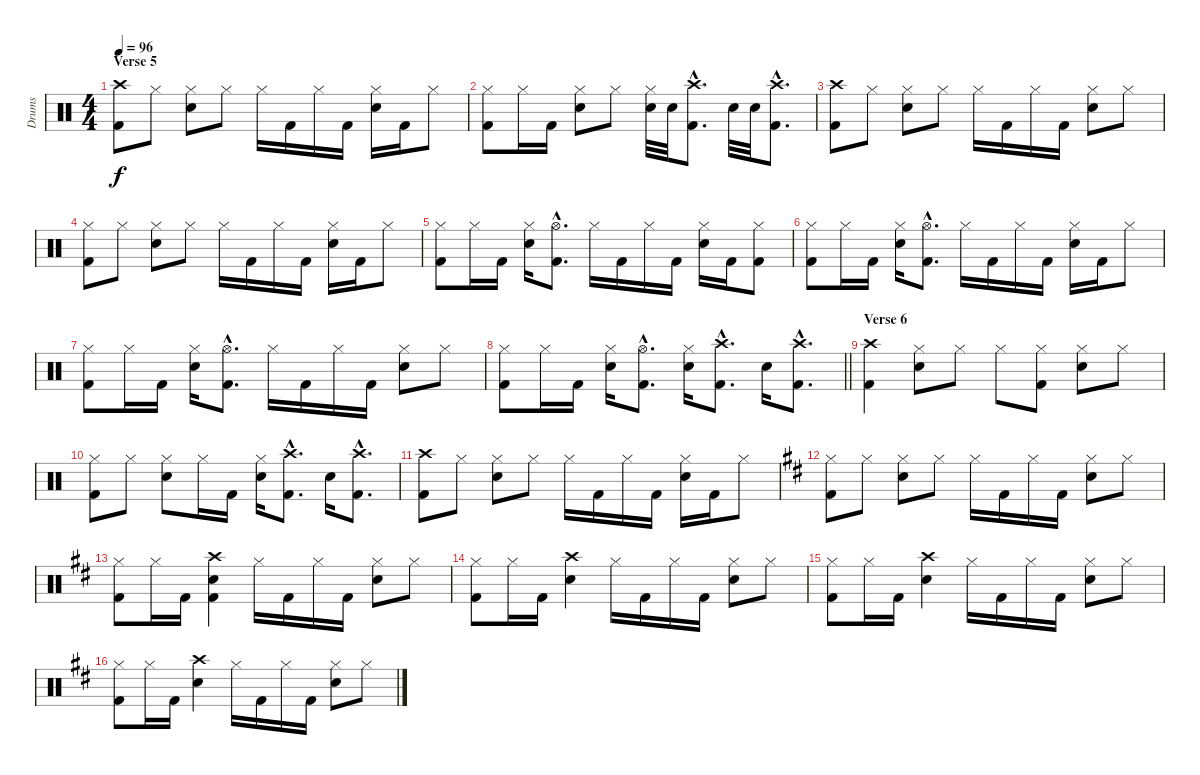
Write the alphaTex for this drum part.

\track ("Drums" "Drums") {instrument percussion}
\staff {score}
\articulation defaults
\ts (4 4)
\section ("" "Verse 5")
\tempo 96
\clef neutral
\ks c
("Crash high (hit)" "Kick (hit) 2").8{dy f} "Hi-Hat (closed)".8 ("Hi-Hat (closed)" "Electric Snare (hit)").8 "Hi-Hat (closed)".8 "Hi-Hat (closed)".16 "Kick (hit) 2".16 "Hi-Hat (closed)".16 "Kick (hit) 2".16 ("Hi-Hat (closed)" "Electric Snare (hit)").16 "Kick (hit) 2".16 "Hi-Hat (closed)".8 |
("Hi-Hat (closed)" "Kick (hit) 2").8 "Hi-Hat (closed)".16 "Kick (hit) 2".16 ("Hi-Hat (closed)" "Electric Snare (hit)").8 "Hi-Hat (closed)".8 ("Hi-Hat (closed)" "Electric Snare (hit)").32 "Electric Snare (hit)".32 ("Crash high (hit)"{hac} "Kick (hit) 2"{hac}).8{d} "Electric Snare (hit)".32 "Electric Snare (hit)".32 ("Crash high (hit)"{hac} "Kick (hit) 2"{hac}).8{d} |
("Crash high (hit)" "Kick (hit) 2").8 "Hi-Hat (closed)".8 ("Hi-Hat (closed)" "Electric Snare (hit)").8 "Hi-Hat (closed)".8 "Hi-Hat (closed)".16 "Kick (hit) 2".16 "Hi-Hat (closed)".16 "Kick (hit) 2".16 ("Hi-Hat (closed)" "Electric Snare (hit)").8 "Hi-Hat (closed)".8 |
("Hi-Hat (closed)" "Kick (hit) 2").8 "Hi-Hat (closed)".8 ("Hi-Hat (closed)" "Electric Snare (hit)").8 "Hi-Hat (closed)".8 "Hi-Hat (closed)".16 "Kick (hit) 2".16 "Hi-Hat (closed)".16 "Kick (hit) 2".16 ("Hi-Hat (closed)" "Electric Snare (hit)").16 "Kick (hit) 2".16 "Hi-Hat (closed)".8 |
("Hi-Hat (closed)" "Kick (hit) 2").8 "Hi-Hat (closed)".16 "Kick (hit) 2".16 ("Hi-Hat (closed)" "Electric Snare (hit)").16 ("Hi-Hat (open)"{hac} "Kick (hit) 2"{hac}).8{d} "Hi-Hat (closed)".16 "Kick (hit) 2".16 "Hi-Hat (closed)".16 "Kick (hit) 2".16 ("Hi-Hat (closed)" "Electric Snare (hit)").16 "Kick (hit) 2".16 ("Hi-Hat (closed)" "Kick (hit) 2").8 |
("Hi-Hat (closed)" "Kick (hit) 2").8 "Hi-Hat (closed)".16 "Kick (hit) 2".16 ("Hi-Hat (closed)" "Electric Snare (hit)").16 ("Hi-Hat (open)"{hac} "Kick (hit) 2"{hac}).8{d} "Hi-Hat (closed)".16 "Kick (hit) 2".16 "Hi-Hat (closed)".16 "Kick (hit) 2".16 ("Hi-Hat (closed)" "Electric Snare (hit)").16 "Kick (hit) 2".16 "Hi-Hat (closed)".8 |
("Hi-Hat (closed)" "Kick (hit) 2").8 "Hi-Hat (closed)".16 "Kick (hit) 2".16 ("Hi-Hat (closed)" "Electric Snare (hit)").16 ("Hi-Hat (open)"{hac} "Kick (hit) 2"{hac}).8{d} "Hi-Hat (closed)".16 "Kick (hit) 2".16 "Hi-Hat (closed)".16 "Kick (hit) 2".16 ("Hi-Hat (closed)" "Electric Snare (hit)").8 "Hi-Hat (closed)".8 |
\barLineRight lightlight
("Hi-Hat (closed)" "Kick (hit) 2").8 "Hi-Hat (closed)".16 "Kick (hit) 2".16 ("Hi-Hat (closed)" "Electric Snare (hit)").16 ("Hi-Hat (open)"{hac} "Kick (hit) 2"{hac}).8{d} ("Hi-Hat (closed)" "Electric Snare (hit)").16 ("Crash high (hit)"{hac} "Kick (hit) 2"{hac}).8{d} "Electric Snare (hit)".16 ("Crash high (hit)"{hac} "Kick (hit) 2"{hac}).8{d} |
\section ("" "Verse 6")
("Crash high (hit)" "Kick (hit) 2").4 ("Hi-Hat (closed)" "Electric Snare (hit)").8 "Hi-Hat (closed)".8 "Hi-Hat (closed)".8 ("Hi-Hat (closed)" "Kick (hit) 2").8 ("Hi-Hat (closed)" "Electric Snare (hit)").8 "Hi-Hat (closed)".8 |
("Hi-Hat (closed)" "Kick (hit) 2").8 "Hi-Hat (closed)".8 ("Hi-Hat (closed)" "Electric Snare (hit)").8 "Hi-Hat (closed)".16 "Kick (hit) 2".16 ("Hi-Hat (closed)" "Electric Snare (hit)").16 ("Crash high (hit)"{hac} "Kick (hit) 2"{hac}).8{d} "Electric Snare (hit)".16 ("Crash high (hit)"{hac} "Kick (hit) 2"{hac}).8{d} |
("Crash high (hit)" "Kick (hit) 2").8 "Hi-Hat (closed)".8 ("Hi-Hat (closed)" "Electric Snare (hit)").8 "Hi-Hat (closed)".8 "Hi-Hat (closed)".16 "Kick (hit) 2".16 "Hi-Hat (closed)".16 "Kick (hit) 2".16 ("Hi-Hat (closed)" "Electric Snare (hit)").16 "Kick (hit) 2".16 "Hi-Hat (closed)".8 |
\ks d
("Hi-Hat (closed)" "Kick (hit) 2").8 "Hi-Hat (closed)".8 ("Hi-Hat (closed)" "Electric Snare (hit)").8 "Hi-Hat (closed)".8 "Hi-Hat (closed)".16 "Kick (hit) 2".16 "Hi-Hat (closed)".16 "Kick (hit) 2".16 ("Hi-Hat (closed)" "Electric Snare (hit)").8 "Hi-Hat (closed)".8 |
("Hi-Hat (closed)" "Kick (hit) 2").8 "Hi-Hat (closed)".16 "Kick (hit) 2".16 ("Crash high (hit)" "Electric Snare (hit)" "Kick (hit) 2").4 "Hi-Hat (closed)".16 "Kick (hit) 2".16 "Hi-Hat (closed)".16 "Kick (hit) 2".16 ("Hi-Hat (closed)" "Electric Snare (hit)").8 "Hi-Hat (closed)".8 |
("Hi-Hat (closed)" "Kick (hit) 2").8 "Hi-Hat (closed)".16 "Kick (hit) 2".16 ("Crash high (hit)" "Electric Snare (hit)").4 "Hi-Hat (closed)".16 "Kick (hit) 2".16 "Hi-Hat (closed)".16 "Kick (hit) 2".16 ("Hi-Hat (closed)" "Electric Snare (hit)").8 "Hi-Hat (closed)".8 |
("Hi-Hat (closed)" "Kick (hit) 2").8 "Hi-Hat (closed)".16 "Kick (hit) 2".16 ("Crash high (hit)" "Electric Snare (hit)").4 "Hi-Hat (closed)".16 "Kick (hit) 2".16 "Hi-Hat (closed)".16 "Kick (hit) 2".16 ("Hi-Hat (closed)" "Electric Snare (hit)").8 "Hi-Hat (closed)".8 |
("Hi-Hat (closed)" "Kick (hit) 2").8 "Hi-Hat (closed)".16 "Kick (hit) 2".16 ("Crash high (hit)" "Electric Snare (hit)").4 "Hi-Hat (closed)".16 "Kick (hit) 2".16 "Hi-Hat (closed)".16 "Kick (hit) 2".16 ("Hi-Hat (closed)" "Electric Snare (hit)").8 "Hi-Hat (closed)".8
